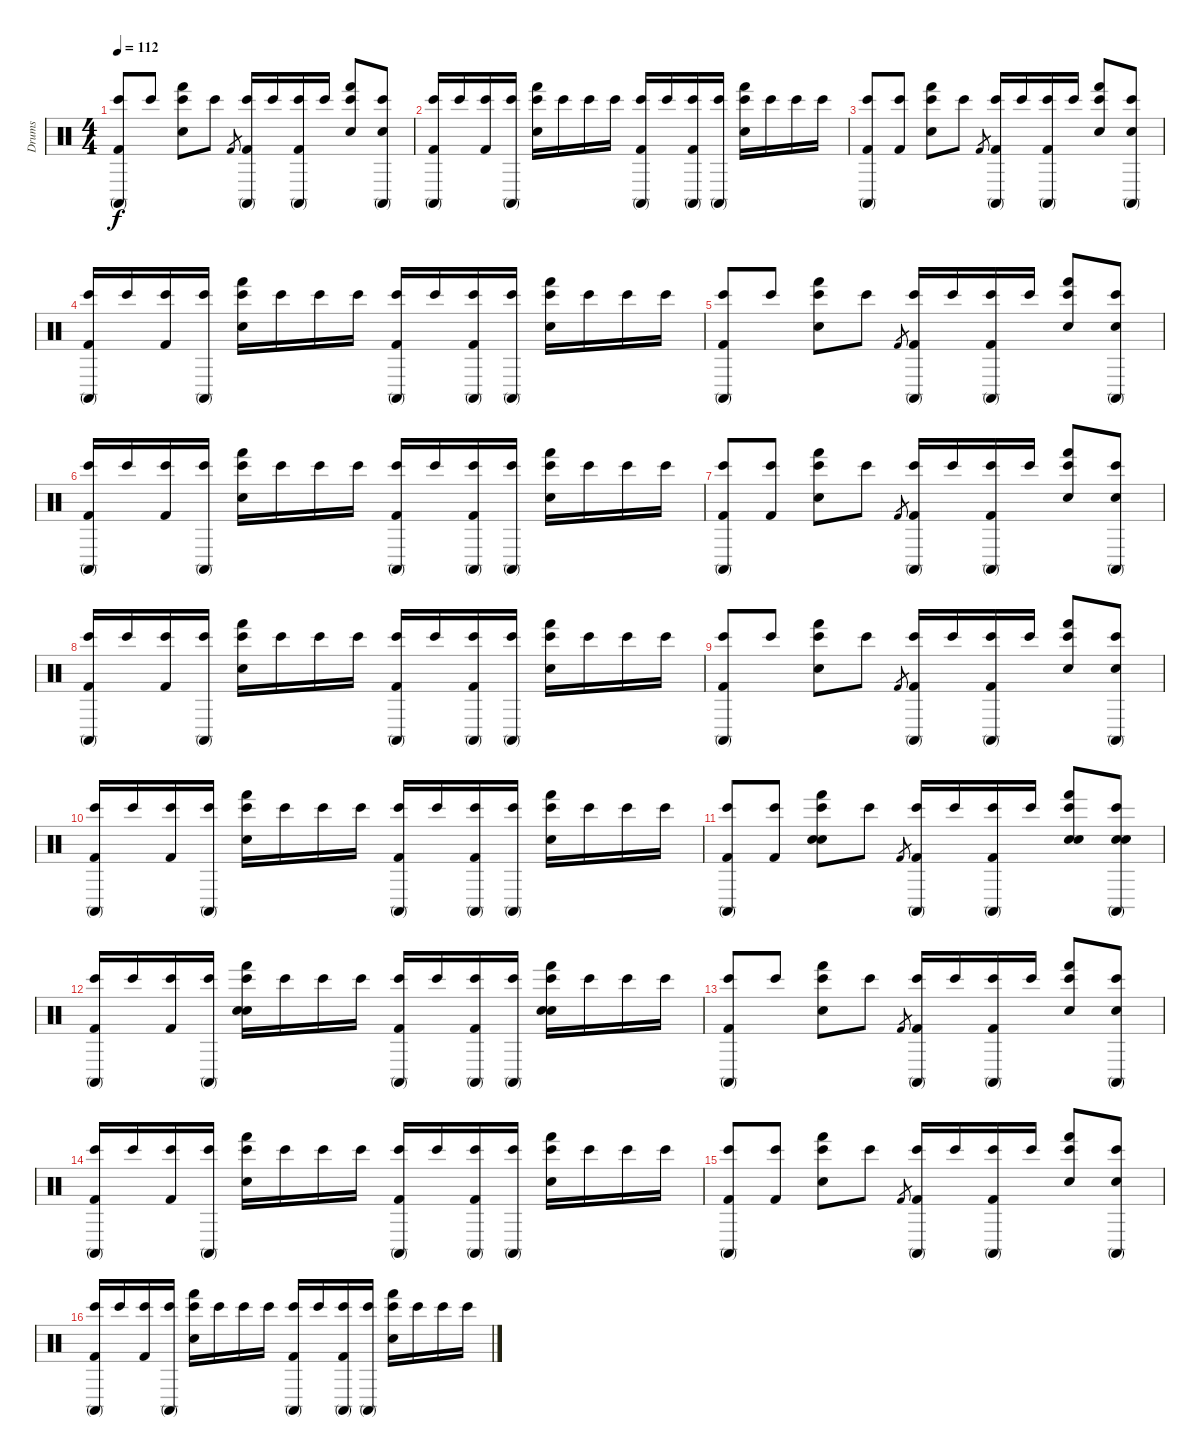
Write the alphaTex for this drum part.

\track ("Drums" "Drums") {instrument percussion}
\staff {score}
\articulation defaults
\ts (4 4)
\tempo 112
\clef neutral
\ks c
("Conga high (mute)" "Bongo High (hit)" "Kick (hit) 2").8{dy f} "Bongo High (hit)".8 ("Hand (hit)" "Bongo High (hit)" "Snare (hit) 2").8 "Bongo High (hit)".8 "Kick (hit) 2".8{gr} ("Conga high (mute)" "Bongo High (hit)" "Kick (hit) 2").16 "Bongo High (hit)".16 ("Conga high (mute)" "Bongo High (hit)" "Kick (hit) 2").16 "Bongo High (hit)".16 ("Hand (hit)" "Bongo High (hit)" "Snare (hit) 2").8 ("Conga high (mute)" "Bongo High (hit)" "Snare (hit) 2").8 |
("Conga high (mute)" "Bongo High (hit)" "Kick (hit) 2").16 "Bongo High (hit)".16 ("Bongo High (hit)" "Kick (hit) 2").16 ("Conga high (mute)" "Bongo High (hit)").16 ("Hand (hit)" "Bongo High (hit)" "Snare (hit) 2").16 "Bongo High (hit)".16 "Bongo High (hit)".16 "Bongo High (hit)".16 ("Conga high (mute)" "Bongo High (hit)" "Kick (hit) 2").16 "Bongo High (hit)".16 ("Conga high (mute)" "Bongo High (hit)" "Kick (hit) 2").16 ("Conga high (mute)" "Bongo High (hit)").16 ("Hand (hit)" "Bongo High (hit)" "Snare (hit) 2").16 "Bongo High (hit)".16 "Bongo High (hit)".16 "Bongo High (hit)".16 |
("Conga high (mute)" "Bongo High (hit)" "Kick (hit) 2").8 ("Bongo High (hit)" "Kick (hit) 2").8 ("Hand (hit)" "Bongo High (hit)" "Snare (hit) 2").8 "Bongo High (hit)".8 "Kick (hit) 2".8{gr} ("Conga high (mute)" "Bongo High (hit)" "Kick (hit) 2").16 "Bongo High (hit)".16 ("Conga high (mute)" "Bongo High (hit)" "Kick (hit) 2").16 "Bongo High (hit)".16 ("Hand (hit)" "Bongo High (hit)" "Snare (hit) 2").8 ("Conga high (mute)" "Bongo High (hit)" "Snare (hit) 2").8 |
("Conga high (mute)" "Bongo High (hit)" "Kick (hit) 2").16 "Bongo High (hit)".16 ("Bongo High (hit)" "Kick (hit) 2").16 ("Conga high (mute)" "Bongo High (hit)").16 ("Hand (hit)" "Bongo High (hit)" "Snare (hit) 2").16 "Bongo High (hit)".16 "Bongo High (hit)".16 "Bongo High (hit)".16 ("Conga high (mute)" "Bongo High (hit)" "Kick (hit) 2").16 "Bongo High (hit)".16 ("Conga high (mute)" "Bongo High (hit)" "Kick (hit) 2").16 ("Conga high (mute)" "Bongo High (hit)").16 ("Hand (hit)" "Bongo High (hit)" "Snare (hit) 2").16 "Bongo High (hit)".16 "Bongo High (hit)".16 "Bongo High (hit)".16 |
("Conga high (mute)" "Bongo High (hit)" "Kick (hit) 2").8 "Bongo High (hit)".8 ("Hand (hit)" "Bongo High (hit)" "Snare (hit) 2").8 "Bongo High (hit)".8 "Kick (hit) 2".8{gr} ("Conga high (mute)" "Bongo High (hit)" "Kick (hit) 2").16 "Bongo High (hit)".16 ("Conga high (mute)" "Bongo High (hit)" "Kick (hit) 2").16 "Bongo High (hit)".16 ("Hand (hit)" "Bongo High (hit)" "Snare (hit) 2").8 ("Conga high (mute)" "Bongo High (hit)" "Snare (hit) 2").8 |
("Conga high (mute)" "Bongo High (hit)" "Kick (hit) 2").16 "Bongo High (hit)".16 ("Bongo High (hit)" "Kick (hit) 2").16 ("Conga high (mute)" "Bongo High (hit)").16 ("Hand (hit)" "Bongo High (hit)" "Snare (hit) 2").16 "Bongo High (hit)".16 "Bongo High (hit)".16 "Bongo High (hit)".16 ("Conga high (mute)" "Bongo High (hit)" "Kick (hit) 2").16 "Bongo High (hit)".16 ("Conga high (mute)" "Bongo High (hit)" "Kick (hit) 2").16 ("Conga high (mute)" "Bongo High (hit)").16 ("Hand (hit)" "Bongo High (hit)" "Snare (hit) 2").16 "Bongo High (hit)".16 "Bongo High (hit)".16 "Bongo High (hit)".16 |
("Conga high (mute)" "Bongo High (hit)" "Kick (hit) 2").8 ("Bongo High (hit)" "Kick (hit) 2").8 ("Hand (hit)" "Bongo High (hit)" "Snare (hit) 2").8 "Bongo High (hit)".8 "Kick (hit) 2".8{gr} ("Conga high (mute)" "Bongo High (hit)" "Kick (hit) 2").16 "Bongo High (hit)".16 ("Conga high (mute)" "Bongo High (hit)" "Kick (hit) 2").16 "Bongo High (hit)".16 ("Hand (hit)" "Bongo High (hit)" "Snare (hit) 2").8 ("Conga high (mute)" "Bongo High (hit)" "Snare (hit) 2").8 |
("Conga high (mute)" "Bongo High (hit)" "Kick (hit) 2").16 "Bongo High (hit)".16 ("Bongo High (hit)" "Kick (hit) 2").16 ("Conga high (mute)" "Bongo High (hit)").16 ("Hand (hit)" "Bongo High (hit)" "Snare (hit) 2").16 "Bongo High (hit)".16 "Bongo High (hit)".16 "Bongo High (hit)".16 ("Conga high (mute)" "Bongo High (hit)" "Kick (hit) 2").16 "Bongo High (hit)".16 ("Conga high (mute)" "Bongo High (hit)" "Kick (hit) 2").16 ("Conga high (mute)" "Bongo High (hit)").16 ("Hand (hit)" "Bongo High (hit)" "Snare (hit) 2").16 "Bongo High (hit)".16 "Bongo High (hit)".16 "Bongo High (hit)".16 |
("Conga high (mute)" "Bongo High (hit)" "Kick (hit) 2").8 "Bongo High (hit)".8 ("Hand (hit)" "Bongo High (hit)" "Snare (hit) 2").8 "Bongo High (hit)".8 "Kick (hit) 2".8{gr} ("Conga high (mute)" "Bongo High (hit)" "Kick (hit) 2").16 "Bongo High (hit)".16 ("Conga high (mute)" "Bongo High (hit)" "Kick (hit) 2").16 "Bongo High (hit)".16 ("Hand (hit)" "Bongo High (hit)" "Snare (hit) 2").8 ("Conga high (mute)" "Bongo High (hit)" "Snare (hit) 2").8 |
("Conga high (mute)" "Bongo High (hit)" "Kick (hit) 2").16 "Bongo High (hit)".16 ("Bongo High (hit)" "Kick (hit) 2").16 ("Conga high (mute)" "Bongo High (hit)").16 ("Hand (hit)" "Bongo High (hit)" "Snare (hit) 2").16 "Bongo High (hit)".16 "Bongo High (hit)".16 "Bongo High (hit)".16 ("Conga high (mute)" "Bongo High (hit)" "Kick (hit) 2").16 "Bongo High (hit)".16 ("Conga high (mute)" "Bongo High (hit)" "Kick (hit) 2").16 ("Conga high (mute)" "Bongo High (hit)").16 ("Hand (hit)" "Bongo High (hit)" "Snare (hit) 2").16 "Bongo High (hit)".16 "Bongo High (hit)".16 "Bongo High (hit)".16 |
("Conga high (mute)" "Bongo High (hit)" "Kick (hit) 2").8 ("Bongo High (hit)" "Kick (hit) 2").8 ("Hand (hit)" "Bongo High (hit)" "Electric Snare (hit)" "Snare (hit) 2").8 "Bongo High (hit)".8 "Kick (hit) 2".8{gr} ("Conga high (mute)" "Bongo High (hit)" "Kick (hit) 2").16 "Bongo High (hit)".16 ("Conga high (mute)" "Bongo High (hit)" "Kick (hit) 2").16 "Bongo High (hit)".16 ("Hand (hit)" "Bongo High (hit)" "Electric Snare (hit)" "Snare (hit) 2").8 ("Conga high (mute)" "Bongo High (hit)" "Electric Snare (hit)" "Snare (hit) 2").8 |
("Conga high (mute)" "Bongo High (hit)" "Kick (hit) 2").16 "Bongo High (hit)".16 ("Bongo High (hit)" "Kick (hit) 2").16 ("Conga high (mute)" "Bongo High (hit)").16 ("Hand (hit)" "Bongo High (hit)" "Electric Snare (hit)" "Snare (hit) 2").16 "Bongo High (hit)".16 "Bongo High (hit)".16 "Bongo High (hit)".16 ("Conga high (mute)" "Bongo High (hit)" "Kick (hit) 2").16 "Bongo High (hit)".16 ("Conga high (mute)" "Bongo High (hit)" "Kick (hit) 2").16 ("Conga high (mute)" "Bongo High (hit)").16 ("Hand (hit)" "Bongo High (hit)" "Electric Snare (hit)" "Snare (hit) 2").16 "Bongo High (hit)".16 "Bongo High (hit)".16 "Bongo High (hit)".16 |
("Conga high (mute)" "Bongo High (hit)" "Kick (hit) 2").8 "Bongo High (hit)".8 ("Hand (hit)" "Bongo High (hit)" "Snare (hit) 2").8 "Bongo High (hit)".8 "Kick (hit) 2".8{gr} ("Conga high (mute)" "Bongo High (hit)" "Kick (hit) 2").16 "Bongo High (hit)".16 ("Conga high (mute)" "Bongo High (hit)" "Kick (hit) 2").16 "Bongo High (hit)".16 ("Hand (hit)" "Bongo High (hit)" "Snare (hit) 2").8 ("Conga high (mute)" "Bongo High (hit)" "Snare (hit) 2").8 |
("Conga high (mute)" "Bongo High (hit)" "Kick (hit) 2").16 "Bongo High (hit)".16 ("Bongo High (hit)" "Kick (hit) 2").16 ("Conga high (mute)" "Bongo High (hit)").16 ("Hand (hit)" "Bongo High (hit)" "Snare (hit) 2").16 "Bongo High (hit)".16 "Bongo High (hit)".16 "Bongo High (hit)".16 ("Conga high (mute)" "Bongo High (hit)" "Kick (hit) 2").16 "Bongo High (hit)".16 ("Conga high (mute)" "Bongo High (hit)" "Kick (hit) 2").16 ("Conga high (mute)" "Bongo High (hit)").16 ("Hand (hit)" "Bongo High (hit)" "Snare (hit) 2").16 "Bongo High (hit)".16 "Bongo High (hit)".16 "Bongo High (hit)".16 |
("Conga high (mute)" "Bongo High (hit)" "Kick (hit) 2").8 ("Bongo High (hit)" "Kick (hit) 2").8 ("Hand (hit)" "Bongo High (hit)" "Snare (hit) 2").8 "Bongo High (hit)".8 "Kick (hit) 2".8{gr} ("Conga high (mute)" "Bongo High (hit)" "Kick (hit) 2").16 "Bongo High (hit)".16 ("Conga high (mute)" "Bongo High (hit)" "Kick (hit) 2").16 "Bongo High (hit)".16 ("Hand (hit)" "Bongo High (hit)" "Snare (hit) 2").8 ("Conga high (mute)" "Bongo High (hit)" "Snare (hit) 2").8 |
("Conga high (mute)" "Bongo High (hit)" "Kick (hit) 2").16 "Bongo High (hit)".16 ("Bongo High (hit)" "Kick (hit) 2").16 ("Conga high (mute)" "Bongo High (hit)").16 ("Hand (hit)" "Bongo High (hit)" "Snare (hit) 2").16 "Bongo High (hit)".16 "Bongo High (hit)".16 "Bongo High (hit)".16 ("Conga high (mute)" "Bongo High (hit)" "Kick (hit) 2").16 "Bongo High (hit)".16 ("Conga high (mute)" "Bongo High (hit)" "Kick (hit) 2").16 ("Conga high (mute)" "Bongo High (hit)").16 ("Hand (hit)" "Bongo High (hit)" "Snare (hit) 2").16 "Bongo High (hit)".16 "Bongo High (hit)".16 "Bongo High (hit)".16
